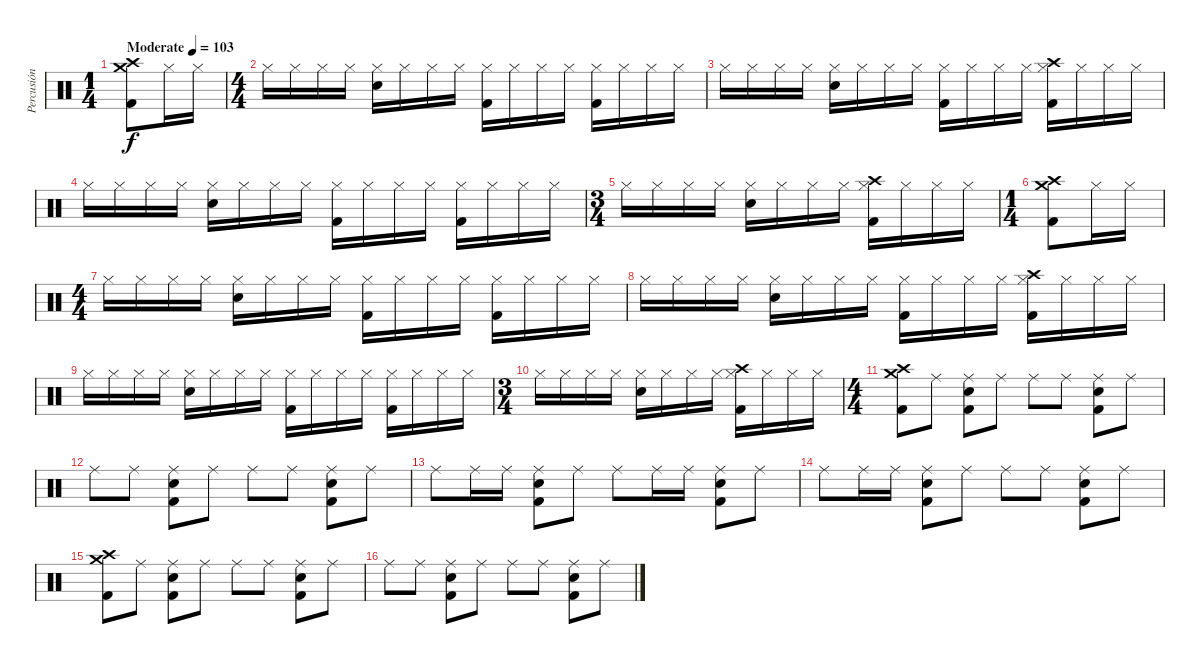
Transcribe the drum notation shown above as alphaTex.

\track ("Percusión" "Percusión") {instrument percussion}
\staff {score}
\articulation defaults
\ts (1 4)
\tempo (103 "Moderate")
\clef neutral
\ks c
("Crash medium (hit)" "Crash high (hit)" "Kick (hit) 2").8{dy f} "Hi-Hat (closed)".16 "Hi-Hat (closed)".16 |
\ts (4 4)
"Hi-Hat (closed)".16 "Hi-Hat (closed)".16 "Hi-Hat (closed)".16 "Hi-Hat (closed)".16 ("Hi-Hat (closed)" "Snare (hit) 2").16 "Hi-Hat (closed)".16 "Hi-Hat (closed)".16 "Hi-Hat (closed)".16 ("Hi-Hat (closed)" "Kick (hit) 2").16 "Hi-Hat (closed)".16 "Hi-Hat (closed)".16 "Hi-Hat (closed)".16 ("Hi-Hat (closed)" "Kick (hit) 2").16 "Hi-Hat (closed)".16 "Hi-Hat (closed)".16 "Hi-Hat (closed)".16 |
"Hi-Hat (closed)".16 "Hi-Hat (closed)".16 "Hi-Hat (closed)".16 "Hi-Hat (closed)".16 ("Hi-Hat (closed)" "Snare (hit) 2").16 "Hi-Hat (closed)".16 "Hi-Hat (closed)".16 "Hi-Hat (closed)".16 ("Hi-Hat (closed)" "Kick (hit) 2").16 "Hi-Hat (closed)".16 "Hi-Hat (closed)".16 "Hi-Hat (closed)".16 ("Hi-Hat (closed)" "Crash high (hit)" "Kick (hit) 2").16 "Hi-Hat (closed)".16 "Hi-Hat (closed)".16 "Hi-Hat (closed)".16 |
"Hi-Hat (closed)".16 "Hi-Hat (closed)".16 "Hi-Hat (closed)".16 "Hi-Hat (closed)".16 ("Hi-Hat (closed)" "Snare (hit) 2").16 "Hi-Hat (closed)".16 "Hi-Hat (closed)".16 "Hi-Hat (closed)".16 ("Hi-Hat (closed)" "Kick (hit) 2").16 "Hi-Hat (closed)".16 "Hi-Hat (closed)".16 "Hi-Hat (closed)".16 ("Hi-Hat (closed)" "Kick (hit) 2").16 "Hi-Hat (closed)".16 "Hi-Hat (closed)".16 "Hi-Hat (closed)".16 |
\ts (3 4)
"Hi-Hat (closed)".16 "Hi-Hat (closed)".16 "Hi-Hat (closed)".16 "Hi-Hat (closed)".16 ("Hi-Hat (closed)" "Snare (hit) 2").16 "Hi-Hat (closed)".16 "Hi-Hat (closed)".16 "Hi-Hat (closed)".16 ("Hi-Hat (closed)" "Crash high (hit)" "Kick (hit) 2").16 "Hi-Hat (closed)".16 "Hi-Hat (closed)".16 "Hi-Hat (closed)".16 |
\ts (1 4)
("Crash medium (hit)" "Crash high (hit)" "Kick (hit) 2").8 "Hi-Hat (closed)".16 "Hi-Hat (closed)".16 |
\ts (4 4)
"Hi-Hat (closed)".16 "Hi-Hat (closed)".16 "Hi-Hat (closed)".16 "Hi-Hat (closed)".16 ("Hi-Hat (closed)" "Snare (hit) 2").16 "Hi-Hat (closed)".16 "Hi-Hat (closed)".16 "Hi-Hat (closed)".16 ("Hi-Hat (closed)" "Kick (hit) 2").16 "Hi-Hat (closed)".16 "Hi-Hat (closed)".16 "Hi-Hat (closed)".16 ("Hi-Hat (closed)" "Kick (hit) 2").16 "Hi-Hat (closed)".16 "Hi-Hat (closed)".16 "Hi-Hat (closed)".16 |
"Hi-Hat (closed)".16 "Hi-Hat (closed)".16 "Hi-Hat (closed)".16 "Hi-Hat (closed)".16 ("Hi-Hat (closed)" "Snare (hit) 2").16 "Hi-Hat (closed)".16 "Hi-Hat (closed)".16 "Hi-Hat (closed)".16 ("Hi-Hat (closed)" "Kick (hit) 2").16 "Hi-Hat (closed)".16 "Hi-Hat (closed)".16 "Hi-Hat (closed)".16 ("Hi-Hat (closed)" "Crash high (hit)" "Kick (hit) 2").16 "Hi-Hat (closed)".16 "Hi-Hat (closed)".16 "Hi-Hat (closed)".16 |
"Hi-Hat (closed)".16 "Hi-Hat (closed)".16 "Hi-Hat (closed)".16 "Hi-Hat (closed)".16 ("Hi-Hat (closed)" "Snare (hit) 2").16 "Hi-Hat (closed)".16 "Hi-Hat (closed)".16 "Hi-Hat (closed)".16 ("Hi-Hat (closed)" "Kick (hit) 2").16 "Hi-Hat (closed)".16 "Hi-Hat (closed)".16 "Hi-Hat (closed)".16 ("Hi-Hat (closed)" "Kick (hit) 2").16 "Hi-Hat (closed)".16 "Hi-Hat (closed)".16 "Hi-Hat (closed)".16 |
\ts (3 4)
"Hi-Hat (closed)".16 "Hi-Hat (closed)".16 "Hi-Hat (closed)".16 "Hi-Hat (closed)".16 ("Hi-Hat (closed)" "Snare (hit) 2").16 "Hi-Hat (closed)".16 "Hi-Hat (closed)".16 "Hi-Hat (closed)".16 ("Hi-Hat (closed)" "Crash high (hit)" "Kick (hit) 2").16 "Hi-Hat (closed)".16 "Hi-Hat (closed)".16 "Hi-Hat (closed)".16 |
\ts (4 4)
("Crash medium (hit)" "Crash high (hit)" "Kick (hit) 2").8 "Ride (middle)".8 ("Ride (middle)" "Snare (hit) 2" "Kick (hit) 2").8 "Ride (middle)".8 "Ride (middle)".8 "Ride (middle)".8 ("Ride (middle)" "Snare (hit) 2" "Kick (hit) 2").8 "Ride (middle)".8 |
"Ride (middle)".8 "Ride (middle)".8 ("Ride (middle)" "Snare (hit) 2" "Kick (hit) 2").8 "Ride (middle)".8 "Ride (middle)".8 "Ride (middle)".8 ("Ride (middle)" "Snare (hit) 2" "Kick (hit) 2").8 "Ride (middle)".8 |
"Ride (middle)".8 "Ride (middle)".16 "Ride (middle)".16 ("Ride (middle)" "Snare (hit) 2" "Kick (hit) 2").8 "Ride (middle)".8 "Ride (middle)".8 "Ride (middle)".16 "Ride (middle)".16 ("Ride (middle)" "Snare (hit) 2" "Kick (hit) 2").8 "Ride (middle)".8 |
"Ride (middle)".8 "Ride (middle)".16 "Ride (middle)".16 ("Ride (middle)" "Snare (hit) 2" "Kick (hit) 2").8 "Ride (middle)".8 "Ride (middle)".8 "Ride (middle)".8 ("Ride (middle)" "Snare (hit) 2" "Kick (hit) 2").8 "Ride (middle)".8 |
("Crash medium (hit)" "Crash high (hit)" "Kick (hit) 2").8 "Ride (middle)".8 ("Ride (middle)" "Snare (hit) 2" "Kick (hit) 2").8 "Ride (middle)".8 "Ride (middle)".8 "Ride (middle)".8 ("Ride (middle)" "Snare (hit) 2" "Kick (hit) 2").8 "Ride (middle)".8 |
"Ride (middle)".8 "Ride (middle)".8 ("Ride (middle)" "Snare (hit) 2" "Kick (hit) 2").8 "Ride (middle)".8 "Ride (middle)".8 "Ride (middle)".8 ("Ride (middle)" "Snare (hit) 2" "Kick (hit) 2").8 "Ride (middle)".8
